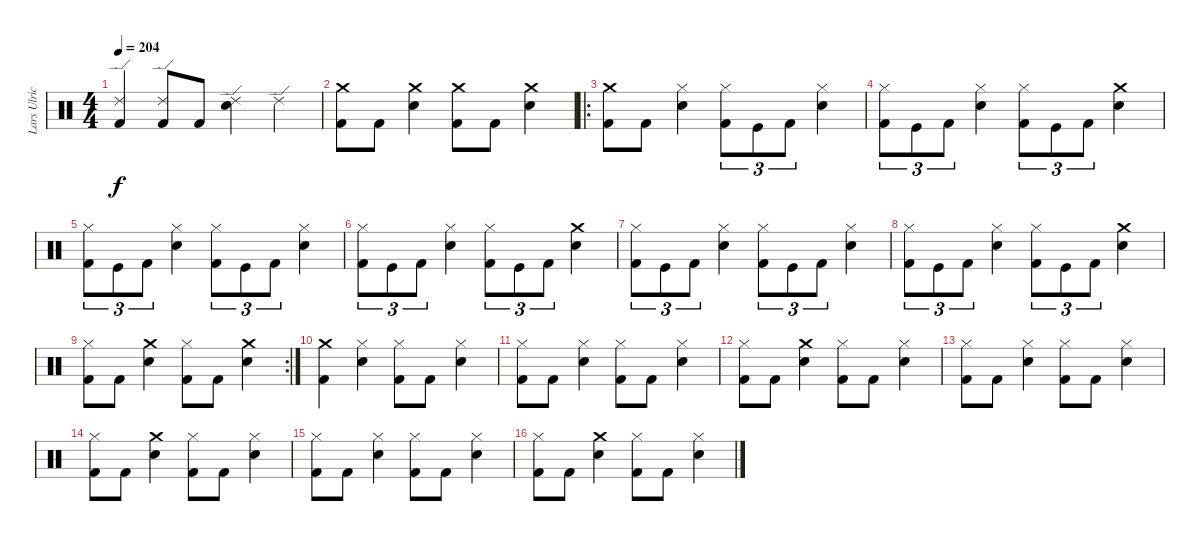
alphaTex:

\track ("Lars Ulrich (Drums)" "Lars Ulric") {instrument percussion}
\staff {score}
\articulation defaults
\ts (4 4)
\tempo 204
\clef neutral
\ks c
("Kick (hit) 2" "Ride (edge) 2").4{dy f} ("Ride (edge) 2" "Kick (hit) 2").8 "Kick (hit) 2".8 ("Snare (hit) 2" "Ride (edge) 2").4 "Ride (edge) 2".4 |
("Kick (hit) 2" "Crash medium (hit)").8 "Kick (hit) 2".8 ("Snare (hit) 2" "Crash medium (hit)").4 ("Kick (hit) 2" "Crash medium (hit)").8 "Kick (hit) 2".8 ("Snare (hit) 2" "Crash medium (hit)").4 |
\ro
("Crash medium (hit)" "Kick (hit) 2").8 "Kick (hit) 2".8 ("Snare (hit) 2" "Hi-Hat (closed)").4 ("Hi-Hat (closed)" "Kick (hit) 2").8{tu (3 2)} "Kick (hit)".8{tu (3 2)} "Kick (hit) 2".8{tu (3 2)} ("Hi-Hat (closed)" "Snare (hit) 2").4 |
("Hi-Hat (closed)" "Kick (hit) 2").8{tu (3 2)} "Kick (hit)".8{tu (3 2)} "Kick (hit) 2".8{tu (3 2)} ("Snare (hit) 2" "Hi-Hat (closed)").4 ("Hi-Hat (closed)" "Kick (hit) 2").8{tu (3 2)} "Kick (hit)".8{tu (3 2)} "Kick (hit) 2".8{tu (3 2)} ("Crash medium (hit)" "Snare (hit) 2").4 |
("Hi-Hat (closed)" "Kick (hit) 2").8{tu (3 2)} "Kick (hit)".8{tu (3 2)} "Kick (hit) 2".8{tu (3 2)} ("Snare (hit) 2" "Hi-Hat (closed)").4 ("Hi-Hat (closed)" "Kick (hit) 2").8{tu (3 2)} "Kick (hit)".8{tu (3 2)} "Kick (hit) 2".8{tu (3 2)} ("Hi-Hat (closed)" "Snare (hit) 2").4 |
("Hi-Hat (closed)" "Kick (hit) 2").8{tu (3 2)} "Kick (hit)".8{tu (3 2)} "Kick (hit) 2".8{tu (3 2)} ("Snare (hit) 2" "Hi-Hat (closed)").4 ("Hi-Hat (closed)" "Kick (hit) 2").8{tu (3 2)} "Kick (hit)".8{tu (3 2)} "Kick (hit) 2".8{tu (3 2)} ("Crash medium (hit)" "Snare (hit) 2").4 |
("Hi-Hat (closed)" "Kick (hit) 2").8{tu (3 2)} "Kick (hit)".8{tu (3 2)} "Kick (hit) 2".8{tu (3 2)} ("Snare (hit) 2" "Hi-Hat (closed)").4 ("Hi-Hat (closed)" "Kick (hit) 2").8{tu (3 2)} "Kick (hit)".8{tu (3 2)} "Kick (hit) 2".8{tu (3 2)} ("Hi-Hat (closed)" "Snare (hit) 2").4 |
("Hi-Hat (closed)" "Kick (hit) 2").8{tu (3 2)} "Kick (hit)".8{tu (3 2)} "Kick (hit) 2".8{tu (3 2)} ("Snare (hit) 2" "Hi-Hat (closed)").4 ("Hi-Hat (closed)" "Kick (hit) 2").8{tu (3 2)} "Kick (hit)".8{tu (3 2)} "Kick (hit) 2".8{tu (3 2)} ("Crash medium (hit)" "Snare (hit) 2").4 |
\rc 2
("Kick (hit) 2" "Hi-Hat (closed)").8 "Kick (hit) 2".8 ("Crash medium (hit)" "Snare (hit) 2").4 ("Kick (hit) 2" "Hi-Hat (closed)").8 "Kick (hit) 2".8 ("Crash medium (hit)" "Snare (hit) 2").4 |
("Kick (hit) 2" "Crash medium (hit)").4 ("Hi-Hat (closed)" "Snare (hit) 2").4 ("Hi-Hat (closed)" "Kick (hit) 2").8 "Kick (hit) 2".8 ("Snare (hit) 2" "Hi-Hat (closed)").4 |
("Kick (hit) 2" "Hi-Hat (closed)").8 "Kick (hit) 2".8 ("Snare (hit) 2" "Hi-Hat (closed)").4 ("Kick (hit) 2" "Hi-Hat (closed)").8 "Kick (hit) 2".8 ("Snare (hit) 2" "Hi-Hat (closed)").4 |
("Kick (hit) 2" "Hi-Hat (closed)").8 "Kick (hit) 2".8 ("Crash medium (hit)" "Snare (hit) 2").4 ("Kick (hit) 2" "Hi-Hat (closed)").8 "Kick (hit) 2".8 ("Snare (hit) 2" "Hi-Hat (closed)").4 |
("Kick (hit) 2" "Hi-Hat (closed)").8 "Kick (hit) 2".8 ("Snare (hit) 2" "Hi-Hat (closed)").4 ("Kick (hit) 2" "Hi-Hat (closed)").8 "Kick (hit) 2".8 ("Snare (hit) 2" "Hi-Hat (closed)").4 |
("Kick (hit) 2" "Hi-Hat (closed)").8 "Kick (hit) 2".8 ("Crash medium (hit)" "Snare (hit) 2").4 ("Kick (hit) 2" "Hi-Hat (closed)").8 "Kick (hit) 2".8 ("Snare (hit) 2" "Hi-Hat (closed)").4 |
("Kick (hit) 2" "Hi-Hat (closed)").8 "Kick (hit) 2".8 ("Snare (hit) 2" "Hi-Hat (closed)").4 ("Kick (hit) 2" "Hi-Hat (closed)").8 "Kick (hit) 2".8 ("Snare (hit) 2" "Hi-Hat (closed)").4 |
("Kick (hit) 2" "Hi-Hat (closed)").8 "Kick (hit) 2".8 ("Crash medium (hit)" "Snare (hit) 2").4 ("Kick (hit) 2" "Hi-Hat (closed)").8 "Kick (hit) 2".8 ("Snare (hit) 2" "Hi-Hat (closed)").4
